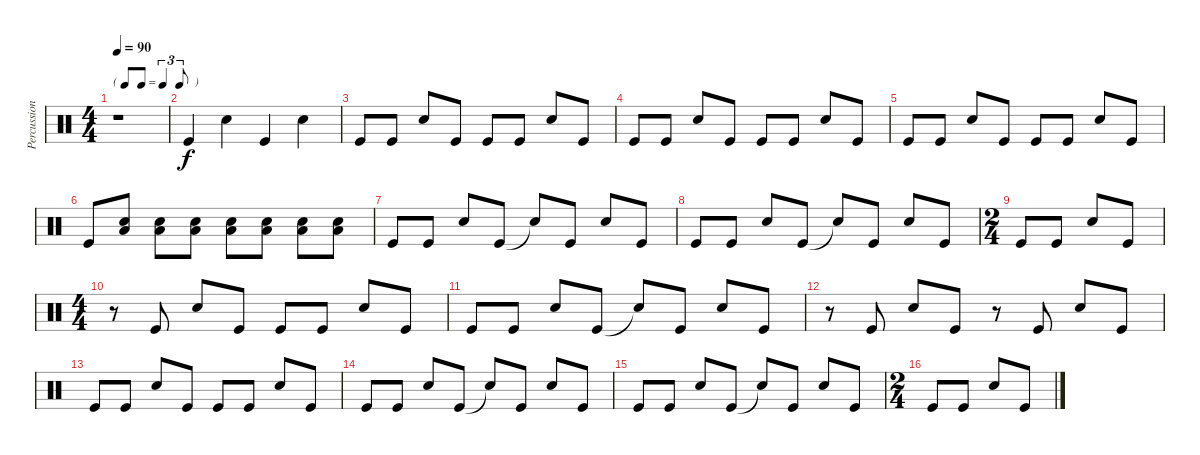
\track ("Percussion" "Percussion") {instrument percussion}
\staff {score}
\articulation defaults
\ts (4 4)
\tf triplet8th
\tempo 90
\clef neutral
\ks c
r.1{dy f} |
"Kick (hit)".4 "Snare (hit) 2".4 "Kick (hit)".4 "Snare (hit) 2".4 |
"Kick (hit)".8 "Kick (hit)".8 "Snare (hit) 2".8 "Kick (hit)".8 "Kick (hit)".8 "Kick (hit)".8 "Snare (hit) 2".8 "Kick (hit)".8 |
"Kick (hit)".8 "Kick (hit)".8 "Snare (hit) 2".8 "Kick (hit)".8 "Kick (hit)".8 "Kick (hit)".8 "Snare (hit) 2".8 "Kick (hit)".8 |
"Kick (hit)".8 "Kick (hit)".8 "Snare (hit) 2".8 "Kick (hit)".8 "Kick (hit)".8 "Kick (hit)".8 "Snare (hit) 2".8 "Kick (hit)".8 |
"Kick (hit)".8 ("Snare (hit) 2" "Low Floor Tom (hit)").8 ("Snare (hit) 2" "Low Floor Tom (hit)").8 ("Snare (hit) 2" "Low Floor Tom (hit)").8 ("Snare (hit) 2" "Low Floor Tom (hit)").8 ("Snare (hit) 2" "Low Floor Tom (hit)").8 ("Snare (hit) 2" "Low Floor Tom (hit)").8 ("Snare (hit) 2" "Low Floor Tom (hit)").8 |
"Kick (hit)".8 "Kick (hit)".8 "Snare (hit) 2".8 "Kick (hit)".8 "Snare (hit)"{t}.8 "Kick (hit)".8 "Snare (hit) 2".8 "Kick (hit)".8 |
"Kick (hit)".8 "Kick (hit)".8 "Snare (hit) 2".8 "Kick (hit)".8 "Snare (hit)"{t}.8 "Kick (hit)".8 "Snare (hit) 2".8 "Kick (hit)".8 |
\ts (2 4)
"Kick (hit)".8 "Kick (hit)".8 "Snare (hit) 2".8 "Kick (hit)".8 |
\ts (4 4)
r.8 "Kick (hit)".8 "Snare (hit) 2".8 "Kick (hit)".8 "Kick (hit)".8 "Kick (hit)".8 "Snare (hit) 2".8 "Kick (hit)".8 |
"Kick (hit)".8 "Kick (hit)".8 "Snare (hit) 2".8 "Kick (hit)".8 "Snare (hit)"{t}.8 "Kick (hit)".8 "Snare (hit) 2".8 "Kick (hit)".8 |
r.8 "Kick (hit)".8 "Snare (hit) 2".8 "Kick (hit)".8 r.8 "Kick (hit)".8 "Snare (hit) 2".8 "Kick (hit)".8 |
"Kick (hit)".8 "Kick (hit)".8 "Snare (hit) 2".8 "Kick (hit)".8 "Kick (hit)".8 "Kick (hit)".8 "Snare (hit) 2".8 "Kick (hit)".8 |
"Kick (hit)".8 "Kick (hit)".8 "Snare (hit) 2".8 "Kick (hit)".8 "Snare (hit)"{t}.8 "Kick (hit)".8 "Snare (hit) 2".8 "Kick (hit)".8 |
"Kick (hit)".8 "Kick (hit)".8 "Snare (hit) 2".8 "Kick (hit)".8 "Snare (hit)"{t}.8 "Kick (hit)".8 "Snare (hit) 2".8 "Kick (hit)".8 |
\ts (2 4)
"Kick (hit)".8 "Kick (hit)".8 "Snare (hit) 2".8 "Kick (hit)".8
